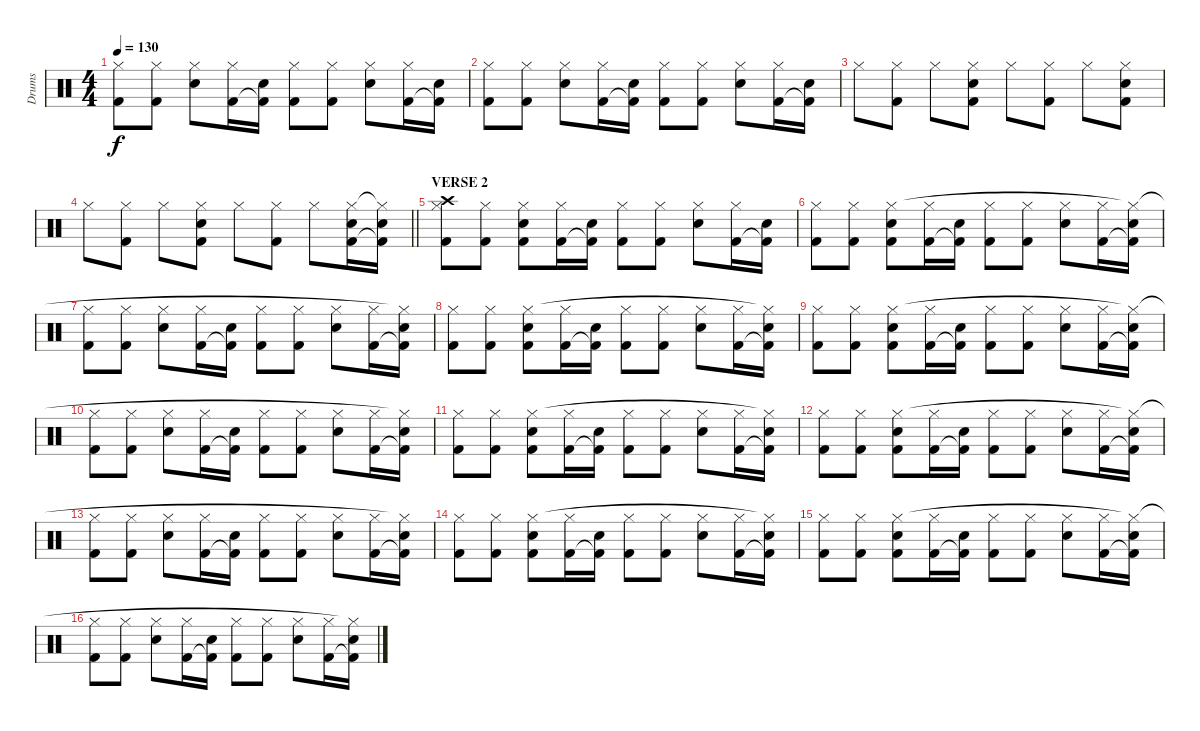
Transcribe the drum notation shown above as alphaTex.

\track ("Drums" "Drums") {instrument percussion}
\staff {score}
\articulation defaults
\ts (4 4)
\tempo 130
\clef neutral
\ks c
("Kick (hit) 2" "Hi-Hat (closed)").8{dy f} ("Kick (hit) 2" "Hi-Hat (closed)").8 ("Electric Snare (hit)" "Hi-Hat (closed)").8 ("Kick (hit) 2" "Hi-Hat (closed)").16 ("Kick (hit) 2"{t} "Electric Snare (hit)").16 ("Kick (hit) 2" "Hi-Hat (closed)").8 ("Kick (hit) 2" "Hi-Hat (closed)").8 ("Electric Snare (hit)" "Hi-Hat (closed)").8 ("Kick (hit) 2" "Hi-Hat (closed)").16 ("Kick (hit) 2"{t} "Electric Snare (hit)").16 |
("Kick (hit) 2" "Hi-Hat (closed)").8 ("Kick (hit) 2" "Hi-Hat (closed)").8 ("Electric Snare (hit)" "Hi-Hat (closed)").8 ("Kick (hit) 2" "Hi-Hat (closed)").16 ("Kick (hit) 2"{t} "Electric Snare (hit)").16 ("Kick (hit) 2" "Hi-Hat (closed)").8 ("Kick (hit) 2" "Hi-Hat (closed)").8 ("Electric Snare (hit)" "Hi-Hat (closed)").8 ("Kick (hit) 2" "Hi-Hat (closed)").16 ("Kick (hit) 2"{t} "Electric Snare (hit)").16 |
"Hi-Hat (closed)".8 ("Kick (hit) 2" "Hi-Hat (closed)").8 "Hi-Hat (closed)".8 ("Kick (hit) 2" "Electric Snare (hit)" "Hi-Hat (closed)").8 "Hi-Hat (closed)".8 ("Kick (hit) 2" "Hi-Hat (closed)").8 "Hi-Hat (closed)".8 ("Kick (hit) 2" "Electric Snare (hit)" "Hi-Hat (closed)").8 |
\barLineRight lightlight "Hi-Hat (closed)".8
("Kick (hit) 2" "Hi-Hat (closed)").8 "Hi-Hat (closed)".8 ("Kick (hit) 2" "Electric Snare (hit)" "Hi-Hat (closed)").8 "Hi-Hat (closed)".8 ("Kick (hit) 2" "Hi-Hat (closed)").8 "Hi-Hat (closed)".8 ("Kick (hit) 2" "Electric Snare (hit)" "Hi-Hat (closed)").16 ("Kick (hit) 2"{t} "Electric Snare (hit)" "Hi-Hat (closed)"{t}).16 |
\section ("" "VERSE 2")
("Kick (hit) 2" "Hi-Hat (closed)" "Crash high (hit)").8 ("Kick (hit) 2" "Hi-Hat (closed)").8 ("Kick (hit) 2" "Electric Snare (hit)" "Hi-Hat (closed)").8 ("Kick (hit) 2" "Hi-Hat (closed)").16 ("Kick (hit) 2"{t} "Electric Snare (hit)").16 ("Kick (hit) 2" "Hi-Hat (closed)").8 ("Kick (hit) 2" "Hi-Hat (closed)").8 ("Electric Snare (hit)" "Hi-Hat (closed)").8 ("Kick (hit) 2" "Hi-Hat (closed)").16 ("Kick (hit) 2"{t} "Electric Snare (hit)").16 |
("Kick (hit) 2" "Hi-Hat (closed)").8 ("Kick (hit) 2" "Hi-Hat (closed)").8 ("Kick (hit) 2" "Electric Snare (hit)" "Hi-Hat (closed)").8 ("Kick (hit) 2" "Hi-Hat (closed)").16 ("Kick (hit) 2"{t} "Electric Snare (hit)").16 ("Kick (hit) 2" "Hi-Hat (closed)").8 ("Kick (hit) 2" "Hi-Hat (closed)").8 ("Electric Snare (hit)" "Hi-Hat (closed)").8 ("Kick (hit) 2" "Hi-Hat (closed)").16 ("Kick (hit) 2"{t} "Electric Snare (hit)" "Hi-Hat (closed)"{t}).16 |
("Kick (hit) 2" "Hi-Hat (closed)").8 ("Kick (hit) 2" "Hi-Hat (closed)").8 ("Electric Snare (hit)" "Hi-Hat (closed)").8 ("Kick (hit) 2" "Hi-Hat (closed)").16 ("Kick (hit) 2"{t} "Electric Snare (hit)").16 ("Kick (hit) 2" "Hi-Hat (closed)").8 ("Kick (hit) 2" "Hi-Hat (closed)").8 ("Electric Snare (hit)" "Hi-Hat (closed)").8 ("Kick (hit) 2" "Hi-Hat (closed)").16 ("Kick (hit) 2"{t} "Electric Snare (hit)" "Hi-Hat (closed)"{t}).16 |
("Kick (hit) 2" "Hi-Hat (closed)").8 ("Kick (hit) 2" "Hi-Hat (closed)").8 ("Kick (hit) 2" "Electric Snare (hit)" "Hi-Hat (closed)").8 ("Kick (hit) 2" "Hi-Hat (closed)").16 ("Kick (hit) 2"{t} "Electric Snare (hit)").16 ("Kick (hit) 2" "Hi-Hat (closed)").8 ("Kick (hit) 2" "Hi-Hat (closed)").8 ("Electric Snare (hit)" "Hi-Hat (closed)").8 ("Kick (hit) 2" "Hi-Hat (closed)").16 ("Kick (hit) 2"{t} "Electric Snare (hit)" "Hi-Hat (closed)"{t}).16 |
("Kick (hit) 2" "Hi-Hat (closed)").8 ("Kick (hit) 2" "Hi-Hat (closed)").8 ("Kick (hit) 2" "Electric Snare (hit)" "Hi-Hat (closed)").8 ("Kick (hit) 2" "Hi-Hat (closed)").16 ("Kick (hit) 2"{t} "Electric Snare (hit)").16 ("Kick (hit) 2" "Hi-Hat (closed)").8 ("Kick (hit) 2" "Hi-Hat (closed)").8 ("Electric Snare (hit)" "Hi-Hat (closed)").8 ("Kick (hit) 2" "Hi-Hat (closed)").16 ("Kick (hit) 2"{t} "Electric Snare (hit)" "Hi-Hat (closed)"{t}).16 |
("Kick (hit) 2" "Hi-Hat (closed)").8 ("Kick (hit) 2" "Hi-Hat (closed)").8 ("Electric Snare (hit)" "Hi-Hat (closed)").8 ("Kick (hit) 2" "Hi-Hat (closed)").16 ("Kick (hit) 2"{t} "Electric Snare (hit)").16 ("Kick (hit) 2" "Hi-Hat (closed)").8 ("Kick (hit) 2" "Hi-Hat (closed)").8 ("Electric Snare (hit)" "Hi-Hat (closed)").8 ("Kick (hit) 2" "Hi-Hat (closed)").16 ("Kick (hit) 2"{t} "Electric Snare (hit)" "Hi-Hat (closed)"{t}).16 |
("Kick (hit) 2" "Hi-Hat (closed)").8 ("Kick (hit) 2" "Hi-Hat (closed)").8 ("Kick (hit) 2" "Electric Snare (hit)" "Hi-Hat (closed)").8 ("Kick (hit) 2" "Hi-Hat (closed)").16 ("Kick (hit) 2"{t} "Electric Snare (hit)").16 ("Kick (hit) 2" "Hi-Hat (closed)").8 ("Kick (hit) 2" "Hi-Hat (closed)").8 ("Electric Snare (hit)" "Hi-Hat (closed)").8 ("Kick (hit) 2" "Hi-Hat (closed)").16 ("Kick (hit) 2"{t} "Electric Snare (hit)" "Hi-Hat (closed)"{t}).16 |
("Kick (hit) 2" "Hi-Hat (closed)").8 ("Kick (hit) 2" "Hi-Hat (closed)").8 ("Kick (hit) 2" "Electric Snare (hit)" "Hi-Hat (closed)").8 ("Kick (hit) 2" "Hi-Hat (closed)").16 ("Kick (hit) 2"{t} "Electric Snare (hit)").16 ("Kick (hit) 2" "Hi-Hat (closed)").8 ("Kick (hit) 2" "Hi-Hat (closed)").8 ("Electric Snare (hit)" "Hi-Hat (closed)").8 ("Kick (hit) 2" "Hi-Hat (closed)").16 ("Kick (hit) 2"{t} "Electric Snare (hit)" "Hi-Hat (closed)"{t}).16 |
("Kick (hit) 2" "Hi-Hat (closed)").8 ("Kick (hit) 2" "Hi-Hat (closed)").8 ("Electric Snare (hit)" "Hi-Hat (closed)").8 ("Kick (hit) 2" "Hi-Hat (closed)").16 ("Kick (hit) 2"{t} "Electric Snare (hit)").16 ("Kick (hit) 2" "Hi-Hat (closed)").8 ("Kick (hit) 2" "Hi-Hat (closed)").8 ("Electric Snare (hit)" "Hi-Hat (closed)").8 ("Kick (hit) 2" "Hi-Hat (closed)").16 ("Kick (hit) 2"{t} "Electric Snare (hit)" "Hi-Hat (closed)"{t}).16 |
("Kick (hit) 2" "Hi-Hat (closed)").8 ("Kick (hit) 2" "Hi-Hat (closed)").8 ("Kick (hit) 2" "Electric Snare (hit)" "Hi-Hat (closed)").8 ("Kick (hit) 2" "Hi-Hat (closed)").16 ("Kick (hit) 2"{t} "Electric Snare (hit)").16 ("Kick (hit) 2" "Hi-Hat (closed)").8 ("Kick (hit) 2" "Hi-Hat (closed)").8 ("Electric Snare (hit)" "Hi-Hat (closed)").8 ("Kick (hit) 2" "Hi-Hat (closed)").16 ("Kick (hit) 2"{t} "Electric Snare (hit)" "Hi-Hat (closed)"{t}).16 |
("Kick (hit) 2" "Hi-Hat (closed)").8 ("Kick (hit) 2" "Hi-Hat (closed)").8 ("Kick (hit) 2" "Electric Snare (hit)" "Hi-Hat (closed)").8 ("Kick (hit) 2" "Hi-Hat (closed)").16 ("Kick (hit) 2"{t} "Electric Snare (hit)").16 ("Kick (hit) 2" "Hi-Hat (closed)").8 ("Kick (hit) 2" "Hi-Hat (closed)").8 ("Electric Snare (hit)" "Hi-Hat (closed)").8 ("Kick (hit) 2" "Hi-Hat (closed)").16 ("Kick (hit) 2"{t} "Electric Snare (hit)" "Hi-Hat (closed)"{t}).16 |
("Kick (hit) 2" "Hi-Hat (closed)").8 ("Kick (hit) 2" "Hi-Hat (closed)").8 ("Electric Snare (hit)" "Hi-Hat (closed)").8 ("Kick (hit) 2" "Hi-Hat (closed)").16 ("Kick (hit) 2"{t} "Electric Snare (hit)").16 ("Kick (hit) 2" "Hi-Hat (closed)").8 ("Kick (hit) 2" "Hi-Hat (closed)").8 ("Electric Snare (hit)" "Hi-Hat (closed)").8 ("Kick (hit) 2" "Hi-Hat (closed)").16 ("Kick (hit) 2"{t} "Electric Snare (hit)" "Hi-Hat (closed)"{t}).16
